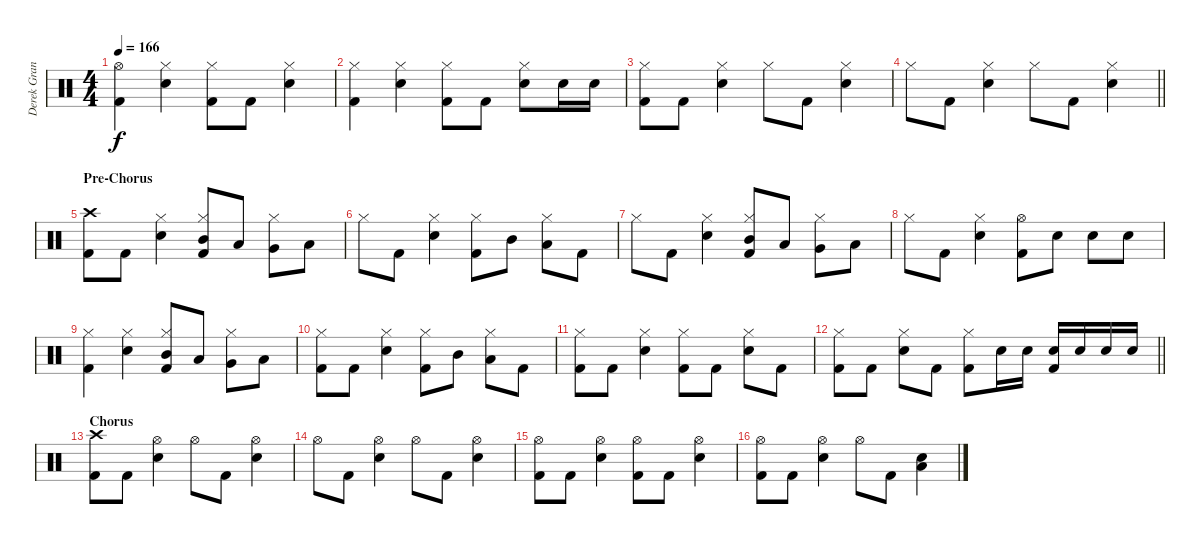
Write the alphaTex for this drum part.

\track ("Derek Grant - Drums" "Derek Gran") {instrument percussion}
\staff {score}
\articulation defaults
\ts (4 4)
\tempo 166
\clef neutral
\ks c
("Hi-Hat (open)" "Kick (hit) 2").4{dy f} ("Snare (hit) 2" "Hi-Hat (closed)").4 ("Kick (hit) 2" "Hi-Hat (closed)").8 "Kick (hit) 2".8 ("Snare (hit) 2" "Hi-Hat (closed)").4 |
("Hi-Hat (closed)" "Kick (hit) 2").4 ("Snare (hit) 2" "Hi-Hat (closed)").4 ("Kick (hit) 2" "Hi-Hat (closed)").8 "Kick (hit) 2".8 ("Snare (hit) 2" "Hi-Hat (closed)").8 "Snare (hit) 2".16 "Snare (hit) 2".16 |
("Kick (hit) 2" "Hi-Hat (closed)").8 "Kick (hit) 2".8 ("Snare (hit) 2" "Hi-Hat (closed)").4 "Hi-Hat (closed)".8 "Kick (hit) 2".8 ("Snare (hit) 2" "Hi-Hat (closed)").4 |
\barLineRight lightlight "Hi-Hat (closed)".8 "Kick (hit) 2".8
("Snare (hit) 2" "Hi-Hat (closed)").4 "Hi-Hat (closed)".8 "Kick (hit) 2".8 ("Snare (hit) 2" "Hi-Hat (closed)").4 |
\section ("" "Pre-Chorus")
("Crash high (hit)" "Kick (hit) 2").8 "Kick (hit) 2".8 ("Snare (hit) 2" "Hi-Hat (closed)").4 ("Hi-Hat (closed)" "Kick (hit) 2" "Mid Tom (hit)").8 "Low Tom (hit)".8 ("Very Low Tom (hit)" "Hi-Hat (closed)").8 "Low Floor Tom (hit)".8 |
"Hi-Hat (closed)".8 "Kick (hit) 2".8 ("Snare (hit) 2" "Hi-Hat (closed)").4 ("Hi-Hat (closed)" "Kick (hit) 2").8 "Mid Tom (hit)".8 ("Low Tom (hit)" "Hi-Hat (closed)").8 "Kick (hit) 2".8 |
"Hi-Hat (closed)".8 "Kick (hit) 2".8 ("Snare (hit) 2" "Hi-Hat (closed)").4 ("Hi-Hat (closed)" "Kick (hit) 2" "Mid Tom (hit)").8 "Low Tom (hit)".8 ("Very Low Tom (hit)" "Hi-Hat (closed)").8 "Low Floor Tom (hit)".8 |
"Hi-Hat (closed)".8 "Kick (hit) 2".8 ("Snare (hit) 2" "Hi-Hat (closed)").4 ("Hi-Hat (open)" "Kick (hit) 2").8 "Snare (hit) 2".8 "Snare (hit) 2".8 "Snare (hit) 2".8 |
("Hi-Hat (closed)" "Kick (hit) 2").4 ("Snare (hit) 2" "Hi-Hat (closed)").4 ("Hi-Hat (closed)" "Kick (hit) 2" "Mid Tom (hit)").8 "Low Tom (hit)".8 ("Very Low Tom (hit)" "Hi-Hat (closed)").8 "Low Floor Tom (hit)".8 |
("Hi-Hat (closed)" "Kick (hit) 2").8 "Kick (hit) 2".8 ("Snare (hit) 2" "Hi-Hat (closed)").4 ("Hi-Hat (closed)" "Kick (hit) 2").8 "Mid Tom (hit)".8 ("Low Tom (hit)" "Hi-Hat (closed)").8 "Kick (hit) 2".8 |
("Hi-Hat (closed)" "Kick (hit) 2").8 "Kick (hit) 2".8 ("Snare (hit) 2" "Hi-Hat (closed)").4 ("Hi-Hat (closed)" "Kick (hit) 2").8 "Kick (hit) 2".8 ("Snare (hit) 2" "Hi-Hat (closed)").8 "Kick (hit) 2".8 |
\barLineRight lightlight
("Hi-Hat (closed)" "Kick (hit) 2").8 "Kick (hit) 2".8 ("Snare (hit) 2" "Hi-Hat (closed)").8 "Kick (hit) 2".8 ("Hi-Hat (closed)" "Kick (hit) 2").8 "Snare (hit) 2".16 "Snare (hit) 2".16 ("Snare (hit) 2" "Kick (hit) 2").16 "Snare (hit) 2".16 "Snare (hit) 2".16 "Snare (hit) 2".16 |
\section ("" "Chorus")
("Crash high (hit)" "Kick (hit) 2").8 "Kick (hit) 2".8 ("Snare (hit) 2" "Hi-Hat (open)").4 "Hi-Hat (open)".8 "Kick (hit) 2".8 ("Snare (hit) 2" "Hi-Hat (open)").4 |
"Hi-Hat (open)".8 "Kick (hit) 2".8 ("Snare (hit) 2" "Hi-Hat (open)").4 "Hi-Hat (open)".8 "Kick (hit) 2".8 ("Snare (hit) 2" "Hi-Hat (open)").4 |
("Kick (hit) 2" "Hi-Hat (open)").8 "Kick (hit) 2".8 ("Snare (hit) 2" "Hi-Hat (open)").4 ("Hi-Hat (open)" "Kick (hit) 2").8 "Kick (hit) 2".8 ("Snare (hit) 2" "Hi-Hat (open)").4 |
("Hi-Hat (open)" "Kick (hit) 2").8 "Kick (hit) 2".8 ("Snare (hit) 2" "Hi-Hat (open)").4 "Hi-Hat (open)".8 "Kick (hit) 2".8 ("Snare (hit) 2" "Low Floor Tom (hit)").4
